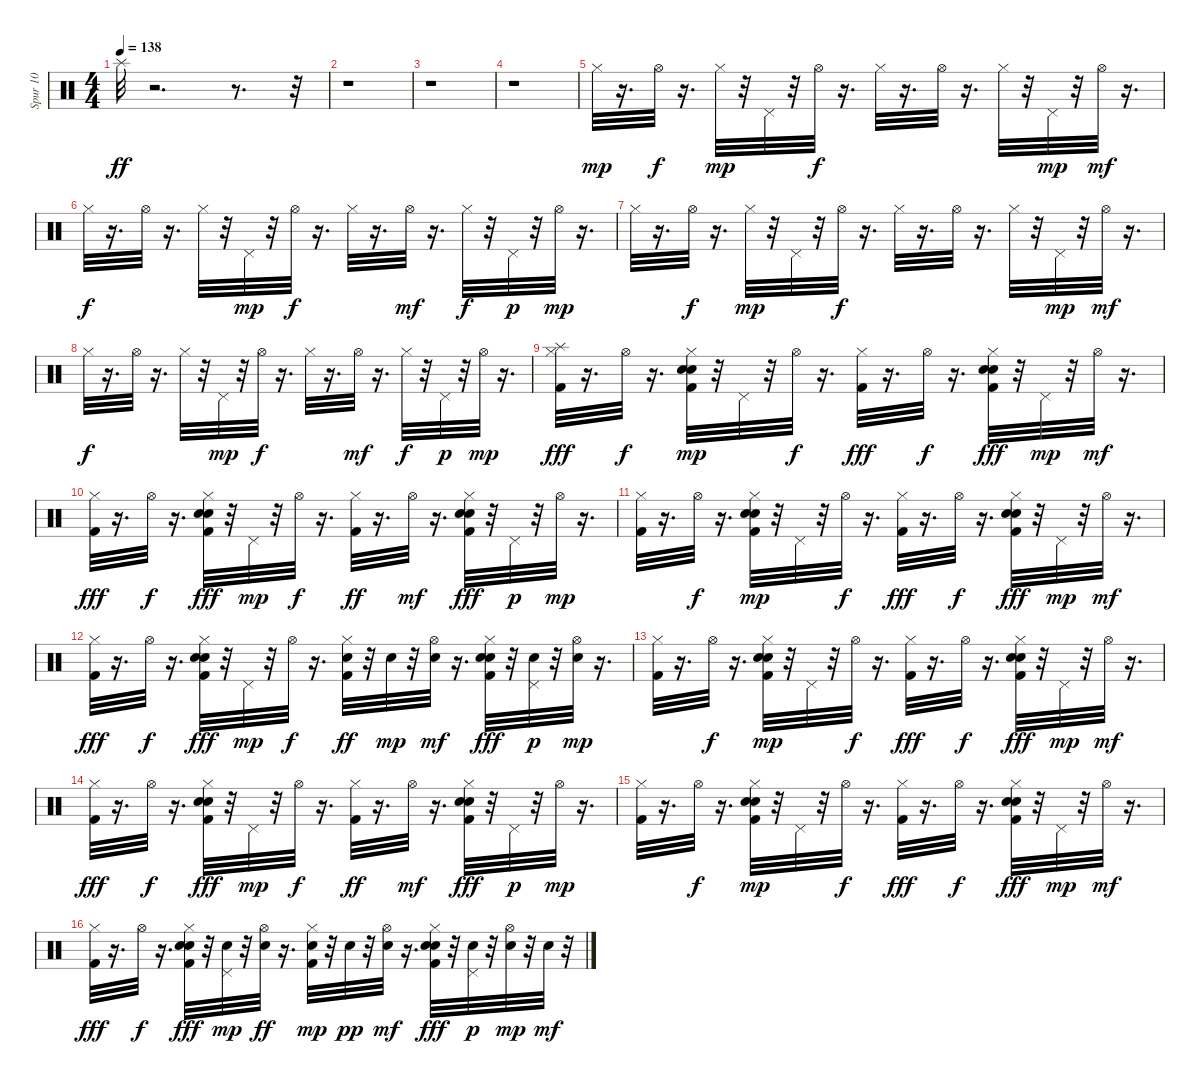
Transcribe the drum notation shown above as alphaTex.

\track ("Spur 10" "Spur 10") {instrument percussion}
\staff {score}
\articulation defaults
\ts (4 4)
\tempo 138
\clef neutral
\ks c "Splash (hit)".32{dy ff}
r.2{d} r.8{d} r.32 |
r.1 |
r.1 |
r.1 |
"Hi-Hat (closed)".32{dy mp} r.16{d} "Hi-Hat (open)".32{dy f} r.16{d} "Hi-Hat (closed)".32{dy mp} r.32 "Pedal Hi-Hat (hit)".32 r.32 "Hi-Hat (open)".32{dy f} r.16{d} "Hi-Hat (closed)".32 r.16{d} "Hi-Hat (open)".32 r.16{d} "Hi-Hat (closed)".32 r.32 "Pedal Hi-Hat (hit)".32{dy mp} r.32 "Hi-Hat (open)".32{dy mf} r.16{d} |
"Hi-Hat (closed)".32{dy f} r.16{d} "Hi-Hat (open)".32 r.16{d} "Hi-Hat (closed)".32 r.32 "Pedal Hi-Hat (hit)".32{dy mp} r.32 "Hi-Hat (open)".32{dy f} r.16{d} "Hi-Hat (closed)".32 r.16{d} "Hi-Hat (open)".32{dy mf} r.16{d} "Hi-Hat (closed)".32{dy f} r.32 "Pedal Hi-Hat (hit)".32{dy p} r.32 "Hi-Hat (open)".32{dy mp} r.16{d} |
"Hi-Hat (closed)".32 r.16{d} "Hi-Hat (open)".32{dy f} r.16{d} "Hi-Hat (closed)".32{dy mp} r.32 "Pedal Hi-Hat (hit)".32 r.32 "Hi-Hat (open)".32{dy f} r.16{d} "Hi-Hat (closed)".32 r.16{d} "Hi-Hat (open)".32 r.16{d} "Hi-Hat (closed)".32 r.32 "Pedal Hi-Hat (hit)".32{dy mp} r.32 "Hi-Hat (open)".32{dy mf} r.16{d} |
"Hi-Hat (closed)".32{dy f} r.16{d} "Hi-Hat (open)".32 r.16{d} "Hi-Hat (closed)".32 r.32 "Pedal Hi-Hat (hit)".32{dy mp} r.32 "Hi-Hat (open)".32{dy f} r.16{d} "Hi-Hat (closed)".32 r.16{d} "Hi-Hat (open)".32{dy mf} r.16{d} "Hi-Hat (closed)".32{dy f} r.32 "Pedal Hi-Hat (hit)".32{dy p} r.32 "Hi-Hat (open)".32{dy mp} r.16{d} |
("Kick (hit) 2" "Hi-Hat (closed)" "Splash (hit)").32{dy fff} r.16{d} "Hi-Hat (open)".32{dy f} r.16{d} ("Kick (hit) 2" "Snare (hit) 2" "Hand Clap (hit)" "Hi-Hat (closed)").32{dy mp} r.32 "Pedal Hi-Hat (hit)".32 r.32 "Hi-Hat (open)".32{dy f} r.16{d} ("Kick (hit) 2" "Hi-Hat (closed)").32{dy fff} r.16{d} "Hi-Hat (open)".32{dy f} r.16{d} ("Kick (hit) 2" "Snare (hit) 2" "Hand Clap (hit)" "Hi-Hat (closed)").32{dy fff} r.32 "Pedal Hi-Hat (hit)".32{dy mp} r.32 "Hi-Hat (open)".32{dy mf} r.16{d} |
("Kick (hit) 2" "Hi-Hat (closed)").32{dy fff} r.16{d} "Hi-Hat (open)".32{dy f} r.16{d} ("Kick (hit) 2" "Snare (hit) 2" "Hand Clap (hit)" "Hi-Hat (closed)").32{dy fff} r.32 "Pedal Hi-Hat (hit)".32{dy mp} r.32 "Hi-Hat (open)".32{dy f} r.16{d} ("Kick (hit) 2" "Hi-Hat (closed)").32{dy ff} r.16{d} "Hi-Hat (open)".32{dy mf} r.16{d} ("Kick (hit) 2" "Snare (hit) 2" "Hand Clap (hit)" "Hi-Hat (closed)").32{dy fff} r.32 "Pedal Hi-Hat (hit)".32{dy p} r.32 "Hi-Hat (open)".32{dy mp} r.16{d} |
("Kick (hit) 2" "Hi-Hat (closed)").32 r.16{d} "Hi-Hat (open)".32{dy f} r.16{d} ("Kick (hit) 2" "Snare (hit) 2" "Hand Clap (hit)" "Hi-Hat (closed)").32{dy mp} r.32 "Pedal Hi-Hat (hit)".32 r.32 "Hi-Hat (open)".32{dy f} r.16{d} ("Kick (hit) 2" "Hi-Hat (closed)").32{dy fff} r.16{d} "Hi-Hat (open)".32{dy f} r.16{d} ("Kick (hit) 2" "Snare (hit) 2" "Hand Clap (hit)" "Hi-Hat (closed)").32{dy fff} r.32 "Pedal Hi-Hat (hit)".32{dy mp} r.32 "Hi-Hat (open)".32{dy mf} r.16{d} |
("Kick (hit) 2" "Hi-Hat (closed)").32{dy fff} r.16{d} "Hi-Hat (open)".32{dy f} r.16{d} ("Kick (hit) 2" "Snare (hit) 2" "Hand Clap (hit)" "Hi-Hat (closed)").32{dy fff} r.32 "Pedal Hi-Hat (hit)".32{dy mp} r.32 "Hi-Hat (open)".32{dy f} r.16{d} ("Kick (hit) 2" "Snare (hit) 2" "Hi-Hat (closed)").32{dy ff} r.32 "Snare (hit) 2".32{dy mp} r.32 ("Snare (hit) 2" "Hi-Hat (open)").32{dy mf} r.16{d} ("Kick (hit) 2" "Snare (hit) 2" "Hand Clap (hit)" "Hi-Hat (closed)").32{dy fff} r.32 ("Snare (hit) 2" "Pedal Hi-Hat (hit)").32{dy p} r.32 ("Snare (hit) 2" "Hi-Hat (open)").32{dy mp} r.16{d} |
("Kick (hit) 2" "Hi-Hat (closed)").32 r.16{d} "Hi-Hat (open)".32{dy f} r.16{d} ("Kick (hit) 2" "Snare (hit) 2" "Hand Clap (hit)" "Hi-Hat (closed)").32{dy mp} r.32 "Pedal Hi-Hat (hit)".32 r.32 "Hi-Hat (open)".32{dy f} r.16{d} ("Kick (hit) 2" "Hi-Hat (closed)").32{dy fff} r.16{d} "Hi-Hat (open)".32{dy f} r.16{d} ("Kick (hit) 2" "Snare (hit) 2" "Hand Clap (hit)" "Hi-Hat (closed)").32{dy fff} r.32 "Pedal Hi-Hat (hit)".32{dy mp} r.32 "Hi-Hat (open)".32{dy mf} r.16{d} |
("Kick (hit) 2" "Hi-Hat (closed)").32{dy fff} r.16{d} "Hi-Hat (open)".32{dy f} r.16{d} ("Kick (hit) 2" "Snare (hit) 2" "Hand Clap (hit)" "Hi-Hat (closed)").32{dy fff} r.32 "Pedal Hi-Hat (hit)".32{dy mp} r.32 "Hi-Hat (open)".32{dy f} r.16{d} ("Kick (hit) 2" "Hi-Hat (closed)").32{dy ff} r.16{d} "Hi-Hat (open)".32{dy mf} r.16{d} ("Kick (hit) 2" "Snare (hit) 2" "Hand Clap (hit)" "Hi-Hat (closed)").32{dy fff} r.32 "Pedal Hi-Hat (hit)".32{dy p} r.32 "Hi-Hat (open)".32{dy mp} r.16{d} |
("Kick (hit) 2" "Hi-Hat (closed)").32 r.16{d} "Hi-Hat (open)".32{dy f} r.16{d} ("Kick (hit) 2" "Snare (hit) 2" "Hand Clap (hit)" "Hi-Hat (closed)").32{dy mp} r.32 "Pedal Hi-Hat (hit)".32 r.32 "Hi-Hat (open)".32{dy f} r.16{d} ("Kick (hit) 2" "Hi-Hat (closed)").32{dy fff} r.16{d} "Hi-Hat (open)".32{dy f} r.16{d} ("Kick (hit) 2" "Snare (hit) 2" "Hand Clap (hit)" "Hi-Hat (closed)").32{dy fff} r.32 "Pedal Hi-Hat (hit)".32{dy mp} r.32 "Hi-Hat (open)".32{dy mf} r.16{d} |
("Kick (hit) 2" "Hi-Hat (closed)").32{dy fff} r.16{d} "Hi-Hat (open)".32{dy f} r.16{d} ("Kick (hit) 2" "Snare (hit) 2" "Hand Clap (hit)" "Hi-Hat (closed)").32{dy fff} r.32 ("Snare (hit) 2" "Pedal Hi-Hat (hit)").32{dy mp} r.32 ("Snare (hit) 2" "Hi-Hat (open)").32{dy ff} r.16{d} ("Kick (hit) 2" "Snare (hit) 2" "Hi-Hat (closed)").32{dy mp} r.32 "Snare (hit) 2".32{dy pp} r.32 ("Snare (hit) 2" "Hi-Hat (open)").32{dy mf} r.16{d} ("Kick (hit) 2" "Snare (hit) 2" "Hand Clap (hit)" "Hi-Hat (closed)").32{dy fff} r.32 ("Snare (hit) 2" "Pedal Hi-Hat (hit)").32{dy p} r.32 ("Snare (hit) 2" "Hi-Hat (open)").32{dy mp} r.32 "Snare (hit) 2".32{dy mf} r.32
